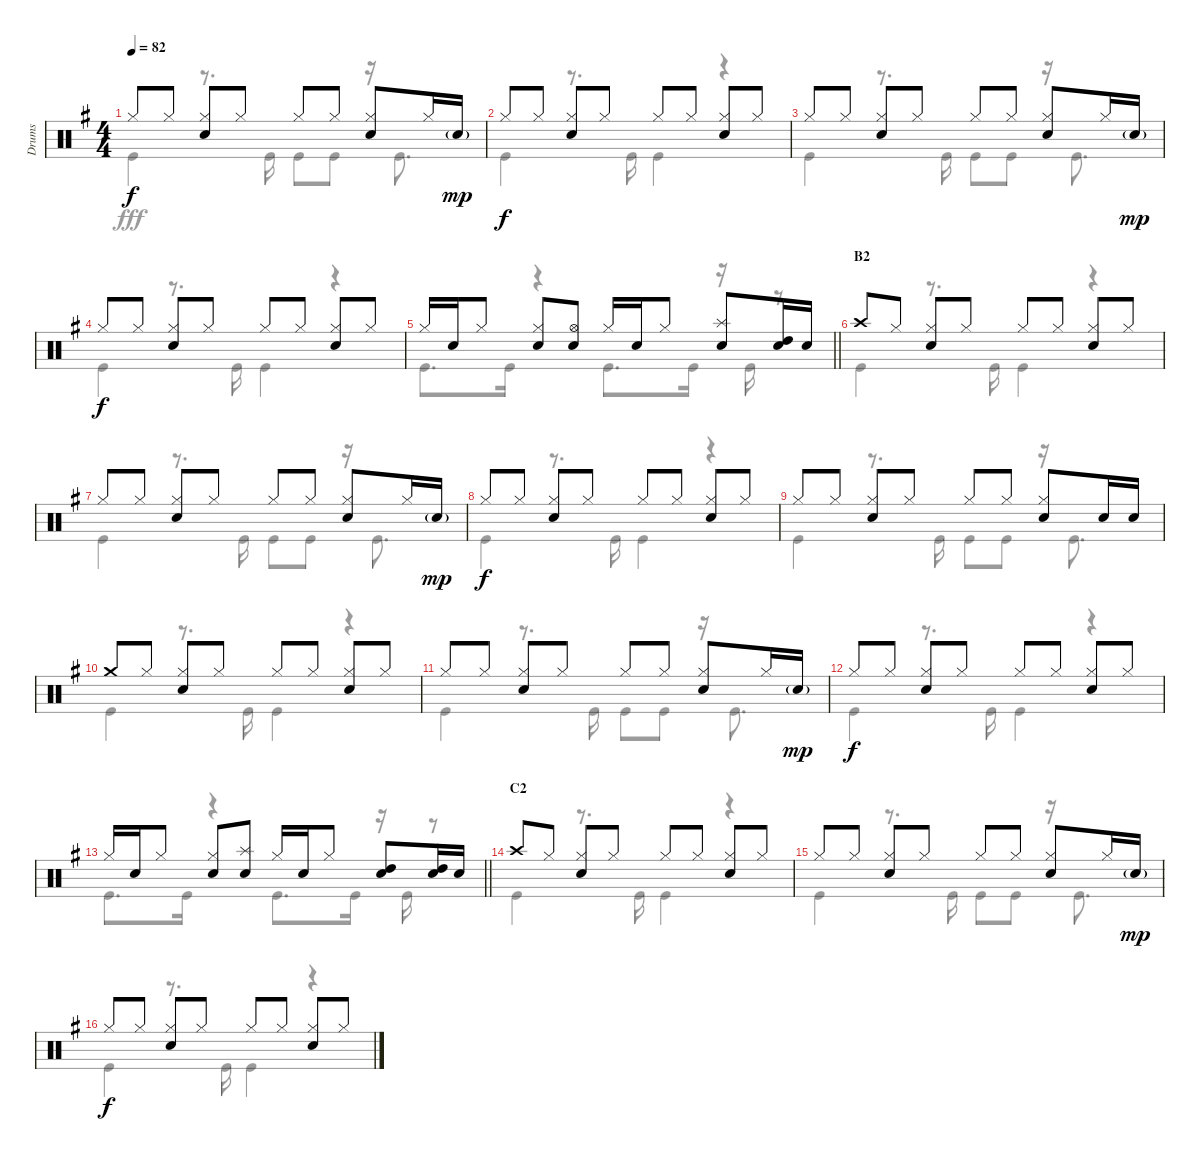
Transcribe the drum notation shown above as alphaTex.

\track ("Drums" "Drums") {instrument percussion}
\staff {score}
\articulation defaults
\voice
\ts (4 4)
\tempo 82
\clef neutral
\ks g "Hi-Hat (closed)".8{dy f} "Hi-Hat (closed)".8
("Hi-Hat (closed)" "Snare (hit) 2").8 "Hi-Hat (closed)".8 "Hi-Hat (closed)".8 "Hi-Hat (closed)".8 ("Hi-Hat (closed)" "Snare (hit) 2").8 "Hi-Hat (closed)".16 "Snare (hit) 2"{g}.16{dy mp} |
"Hi-Hat (closed)".8{dy f} "Hi-Hat (closed)".8 ("Hi-Hat (closed)" "Snare (hit) 2").8 "Hi-Hat (closed)".8 "Hi-Hat (closed)".8 "Hi-Hat (closed)".8 ("Hi-Hat (closed)" "Snare (hit) 2").8 "Hi-Hat (closed)".8 |
"Hi-Hat (closed)".8 "Hi-Hat (closed)".8 ("Hi-Hat (closed)" "Snare (hit) 2").8 "Hi-Hat (closed)".8 "Hi-Hat (closed)".8 "Hi-Hat (closed)".8 ("Hi-Hat (closed)" "Snare (hit) 2").8 "Hi-Hat (closed)".16 "Snare (hit) 2"{g}.16{dy mp} |
"Hi-Hat (closed)".8{dy f} "Hi-Hat (closed)".8 ("Hi-Hat (closed)" "Snare (hit) 2").8 "Hi-Hat (closed)".8 "Hi-Hat (closed)".8 "Hi-Hat (closed)".8 ("Hi-Hat (closed)" "Snare (hit) 2").8 "Hi-Hat (closed)".8 |
\barLineRight lightlight "Hi-Hat (closed)".16 "Snare (hit) 2".16 "Hi-Hat (closed)".8
("Hi-Hat (closed)" "Snare (hit) 2").8 ("Hi-Hat (open)" "Snare (hit) 2").8 "Hi-Hat (closed)".16 "Snare (hit) 2".16 "Hi-Hat (closed)".8 ("Splash (hit)" "Snare (hit) 2").8 ("High Tom (hit)" "Snare (hit) 2").16 "Snare (hit) 2".16 |
\section ("" "B2")
"Crash high (hit)".8 "Hi-Hat (closed)".8 ("Hi-Hat (closed)" "Snare (hit) 2").8 "Hi-Hat (closed)".8 "Hi-Hat (closed)".8 "Hi-Hat (closed)".8 ("Hi-Hat (closed)" "Snare (hit) 2").8 "Hi-Hat (closed)".8 |
"Hi-Hat (closed)".8 "Hi-Hat (closed)".8 ("Hi-Hat (closed)" "Snare (hit) 2").8 "Hi-Hat (closed)".8 "Hi-Hat (closed)".8 "Hi-Hat (closed)".8 ("Hi-Hat (closed)" "Snare (hit) 2").8 "Hi-Hat (closed)".16 "Snare (hit) 2"{g}.16{dy mp} |
"Hi-Hat (closed)".8{dy f} "Hi-Hat (closed)".8 ("Hi-Hat (closed)" "Snare (hit) 2").8 "Hi-Hat (closed)".8 "Hi-Hat (closed)".8 "Hi-Hat (closed)".8 ("Hi-Hat (closed)" "Snare (hit) 2").8 "Hi-Hat (closed)".8 |
"Hi-Hat (closed)".8 "Hi-Hat (closed)".8 ("Hi-Hat (closed)" "Snare (hit) 2").8 "Hi-Hat (closed)".8 "Hi-Hat (closed)".8 "Hi-Hat (closed)".8 ("Hi-Hat (closed)" "Snare (hit) 2").8 "Snare (hit) 2".16 "Snare (hit) 2".16 |
"Crash medium (hit)".8 "Hi-Hat (closed)".8 ("Hi-Hat (closed)" "Snare (hit) 2").8 "Hi-Hat (closed)".8 "Hi-Hat (closed)".8 "Hi-Hat (closed)".8 ("Hi-Hat (closed)" "Snare (hit) 2").8 "Hi-Hat (closed)".8 |
"Hi-Hat (closed)".8 "Hi-Hat (closed)".8 ("Hi-Hat (closed)" "Snare (hit) 2").8 "Hi-Hat (closed)".8 "Hi-Hat (closed)".8 "Hi-Hat (closed)".8 ("Hi-Hat (closed)" "Snare (hit) 2").8 "Hi-Hat (closed)".16 "Snare (hit) 2"{g}.16{dy mp} |
"Hi-Hat (closed)".8{dy f} "Hi-Hat (closed)".8 ("Hi-Hat (closed)" "Snare (hit) 2").8 "Hi-Hat (closed)".8 "Hi-Hat (closed)".8 "Hi-Hat (closed)".8 ("Hi-Hat (closed)" "Snare (hit) 2").8 "Hi-Hat (closed)".8 |
\barLineRight lightlight "Hi-Hat (closed)".16 "Snare (hit) 2".16 "Hi-Hat (closed)".8
("Hi-Hat (closed)" "Snare (hit) 2").8 ("Splash (hit)" "Snare (hit) 2").8 "Hi-Hat (closed)".16 "Snare (hit) 2".16 "Hi-Hat (closed)".8 ("High Tom (hit)" "Snare (hit) 2").8 ("High Tom (hit)" "Snare (hit) 2").16 "Snare (hit) 2".16 |
\section ("" "C2")
"Crash high (hit)".8 "Hi-Hat (closed)".8 ("Hi-Hat (closed)" "Snare (hit) 2").8 "Hi-Hat (closed)".8 "Hi-Hat (closed)".8 "Hi-Hat (closed)".8 ("Hi-Hat (closed)" "Snare (hit) 2").8 "Hi-Hat (closed)".8 |
"Hi-Hat (closed)".8 "Hi-Hat (closed)".8 ("Hi-Hat (closed)" "Snare (hit) 2").8 "Hi-Hat (closed)".8 "Hi-Hat (closed)".8 "Hi-Hat (closed)".8 ("Hi-Hat (closed)" "Snare (hit) 2").8 "Hi-Hat (closed)".16 "Snare (hit) 2"{g}.16{dy mp} |
"Hi-Hat (closed)".8{dy f} "Hi-Hat (closed)".8 ("Hi-Hat (closed)" "Snare (hit) 2").8 "Hi-Hat (closed)".8 "Hi-Hat (closed)".8 "Hi-Hat (closed)".8 ("Hi-Hat (closed)" "Snare (hit) 2").8 "Hi-Hat (closed)".8
\voice
\clef neutral
\ottava regular
\simile none
\ks g "Kick (hit)".4{dy fff}
r.8{d} "Kick (hit)".16 "Kick (hit)".8 "Kick (hit)".8 r.16 "Kick (hit)".8{d} |
"Kick (hit)".4 r.8{d} "Kick (hit)".16 "Kick (hit)".4 r.4 |
"Kick (hit)".4 r.8{d} "Kick (hit)".16 "Kick (hit)".8 "Kick (hit)".8 r.16 "Kick (hit)".8{d} |
"Kick (hit)".4 r.8{d} "Kick (hit)".16 "Kick (hit)".4 r.4 |
\barLineRight lightlight "Kick (hit)".8{d} "Kick (hit)".16
r.4 "Kick (hit)".8{d} "Kick (hit)".16 r.16 "Kick (hit)".16 r.8 |
"Kick (hit)".4 r.8{d} "Kick (hit)".16 "Kick (hit)".4 r.4 |
"Kick (hit)".4 r.8{d} "Kick (hit)".16 "Kick (hit)".8 "Kick (hit)".8 r.16 "Kick (hit)".8{d} |
"Kick (hit)".4 r.8{d} "Kick (hit)".16 "Kick (hit)".4 r.4 |
"Kick (hit)".4 r.8{d} "Kick (hit)".16 "Kick (hit)".8 "Kick (hit)".8 r.16 "Kick (hit)".8{d} |
"Kick (hit)".4 r.8{d} "Kick (hit)".16 "Kick (hit)".4 r.4 |
"Kick (hit)".4 r.8{d} "Kick (hit)".16 "Kick (hit)".8 "Kick (hit)".8 r.16 "Kick (hit)".8{d} |
"Kick (hit)".4 r.8{d} "Kick (hit)".16 "Kick (hit)".4 r.4 |
\barLineRight lightlight "Kick (hit)".8{d} "Kick (hit)".16
r.4 "Kick (hit)".8{d} "Kick (hit)".16 r.16 "Kick (hit)".16 r.8 |
"Kick (hit)".4 r.8{d} "Kick (hit)".16 "Kick (hit)".4 r.4 |
"Kick (hit)".4 r.8{d} "Kick (hit)".16 "Kick (hit)".8 "Kick (hit)".8 r.16 "Kick (hit)".8{d} |
"Kick (hit)".4 r.8{d} "Kick (hit)".16 "Kick (hit)".4 r.4
